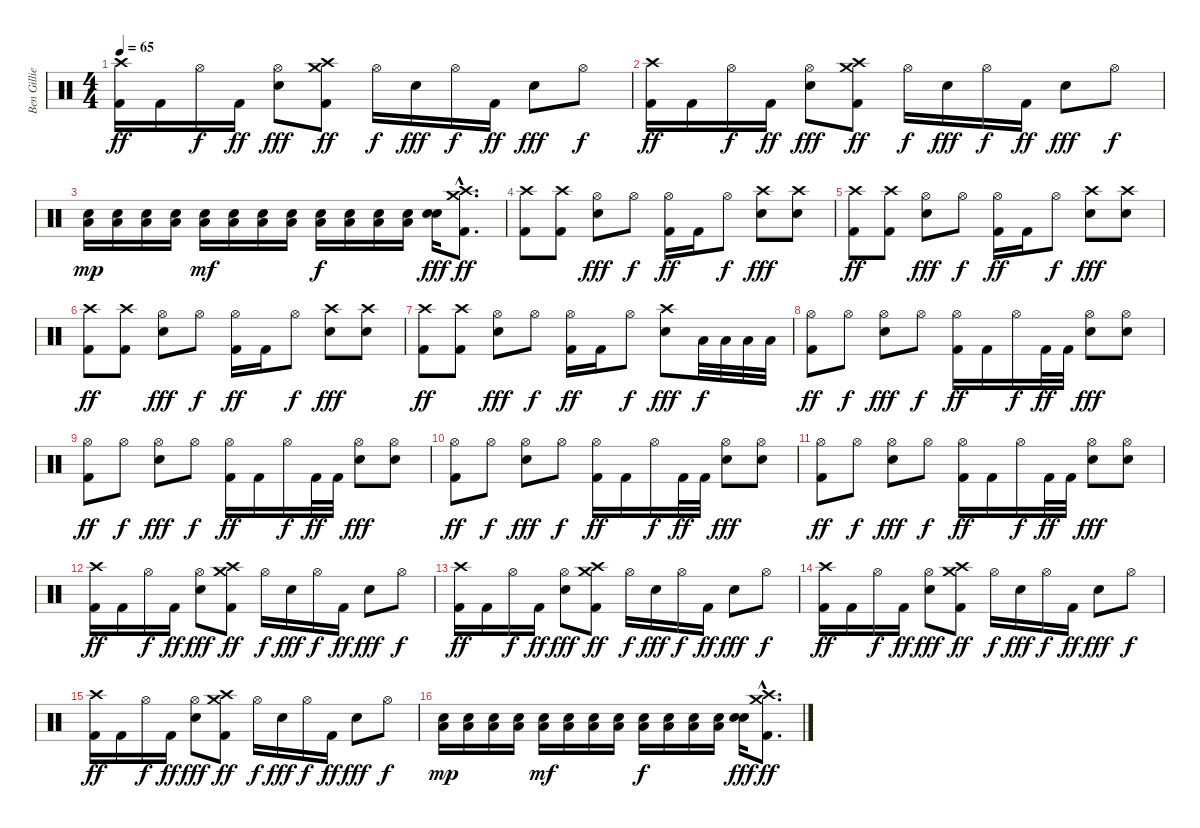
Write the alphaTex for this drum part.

\track ("Ben Gillies" "Ben Gillie") {instrument percussion}
\staff {score}
\articulation defaults
\ts (4 4)
\tempo 65
\clef neutral
\ks c
("Crash high (hit)" "Kick (hit) 2").16{dy ff} "Kick (hit) 2".16 "Hi-Hat (open)".16{dy f} "Kick (hit) 2".16{dy ff} ("Hi-Hat (open)" "Electric Snare (hit)").8{dy fff} ("Crash high (hit)" "Crash medium (hit)" "Kick (hit) 2").8{dy ff} "Hi-Hat (open)".16{dy f} "Electric Snare (hit)".16{dy fff} "Hi-Hat (open)".16{dy f} "Kick (hit) 2".16{dy ff} "Electric Snare (hit)".8{dy fff} "Hi-Hat (open)".8{dy f} |
("Crash high (hit)" "Kick (hit) 2").16{dy ff} "Kick (hit) 2".16 "Hi-Hat (open)".16{dy f} "Kick (hit) 2".16{dy ff} ("Hi-Hat (open)" "Electric Snare (hit)").8{dy fff} ("Crash high (hit)" "Crash medium (hit)" "Kick (hit) 2").8{dy ff} "Hi-Hat (open)".16{dy f} "Electric Snare (hit)".16{dy fff} "Hi-Hat (open)".16{dy f} "Kick (hit) 2".16{dy ff} "Electric Snare (hit)".8{dy fff} "Hi-Hat (open)".8{dy f} |
("Low Floor Tom (hit)" "Electric Snare (hit)").16{dy mp} ("Low Floor Tom (hit)" "Electric Snare (hit)").16 ("Low Floor Tom (hit)" "Electric Snare (hit)").16 ("Low Floor Tom (hit)" "Electric Snare (hit)").16 ("Low Floor Tom (hit)" "Electric Snare (hit)").16{dy mf} ("Low Floor Tom (hit)" "Electric Snare (hit)").16 ("Low Floor Tom (hit)" "Electric Snare (hit)").16 ("Low Floor Tom (hit)" "Electric Snare (hit)").16 ("Low Floor Tom (hit)" "Electric Snare (hit)").16{dy f} ("Low Floor Tom (hit)" "Electric Snare (hit)").16 ("Low Floor Tom (hit)" "Electric Snare (hit)").16 ("Low Floor Tom (hit)" "Electric Snare (hit)").16 ("Electric Snare (hit)" "Electric Snare (hit)").16{dy fff} ("Crash high (hit)"{hac} "Crash medium (hit)"{hac} "Kick (hit) 2"{hac}).8{d dy ff} |
("Crash high (hit)" "Kick (hit) 2").8 ("Crash high (hit)" "Kick (hit) 2").8 ("Hi-Hat (open)" "Electric Snare (hit)").8{dy fff} "Hi-Hat (open)".8{dy f} ("Hi-Hat (open)" "Kick (hit) 2").16{dy ff} "Kick (hit) 2".16 "Hi-Hat (open)".8{dy f} ("Crash high (hit)" "Electric Snare (hit)").8{dy fff} ("Crash high (hit)" "Electric Snare (hit)").8 |
("Crash high (hit)" "Kick (hit) 2").8{dy ff} ("Crash high (hit)" "Kick (hit) 2").8 ("Hi-Hat (open)" "Electric Snare (hit)").8{dy fff} "Hi-Hat (open)".8{dy f} ("Hi-Hat (open)" "Kick (hit) 2").16{dy ff} "Kick (hit) 2".16 "Hi-Hat (open)".8{dy f} ("Crash high (hit)" "Electric Snare (hit)").8{dy fff} ("Crash high (hit)" "Electric Snare (hit)").8 |
("Crash high (hit)" "Kick (hit) 2").8{dy ff} ("Crash high (hit)" "Kick (hit) 2").8 ("Hi-Hat (open)" "Electric Snare (hit)").8{dy fff} "Hi-Hat (open)".8{dy f} ("Hi-Hat (open)" "Kick (hit) 2").16{dy ff} "Kick (hit) 2".16 "Hi-Hat (open)".8{dy f} ("Crash high (hit)" "Electric Snare (hit)").8{dy fff} ("Crash high (hit)" "Electric Snare (hit)").8 |
("Crash high (hit)" "Kick (hit) 2").8{dy ff} ("Crash high (hit)" "Kick (hit) 2").8 ("Hi-Hat (open)" "Electric Snare (hit)").8{dy fff} "Hi-Hat (open)".8{dy f} ("Hi-Hat (open)" "Kick (hit) 2").16{dy ff} "Kick (hit) 2".16 "Hi-Hat (open)".8{dy f} ("Crash high (hit)" "Electric Snare (hit)").8{dy fff} "Low Tom (hit)".32{dy f} "Low Tom (hit)".32 "Low Floor Tom (hit)".32 "Low Floor Tom (hit)".32 |
("Hi-Hat (open)" "Kick (hit) 2").8{dy ff} "Hi-Hat (open)".8{dy f} ("Hi-Hat (open)" "Electric Snare (hit)").8{dy fff} "Hi-Hat (open)".8{dy f} ("Hi-Hat (open)" "Kick (hit) 2").16{dy ff} "Kick (hit) 2".16 "Hi-Hat (open)".16{dy f} "Kick (hit) 2".32{dy ff} "Kick (hit) 2".32 ("Hi-Hat (open)" "Electric Snare (hit)").8{dy fff} ("Hi-Hat (open)" "Electric Snare (hit)").8 |
("Hi-Hat (open)" "Kick (hit) 2").8{dy ff} "Hi-Hat (open)".8{dy f} ("Hi-Hat (open)" "Electric Snare (hit)").8{dy fff} "Hi-Hat (open)".8{dy f} ("Hi-Hat (open)" "Kick (hit) 2").16{dy ff} "Kick (hit) 2".16 "Hi-Hat (open)".16{dy f} "Kick (hit) 2".32{dy ff} "Kick (hit) 2".32 ("Hi-Hat (open)" "Electric Snare (hit)").8{dy fff} ("Hi-Hat (open)" "Electric Snare (hit)").8 |
("Hi-Hat (open)" "Kick (hit) 2").8{dy ff} "Hi-Hat (open)".8{dy f} ("Hi-Hat (open)" "Electric Snare (hit)").8{dy fff} "Hi-Hat (open)".8{dy f} ("Hi-Hat (open)" "Kick (hit) 2").16{dy ff} "Kick (hit) 2".16 "Hi-Hat (open)".16{dy f} "Kick (hit) 2".32{dy ff} "Kick (hit) 2".32 ("Hi-Hat (open)" "Electric Snare (hit)").8{dy fff} ("Hi-Hat (open)" "Electric Snare (hit)").8 |
("Hi-Hat (open)" "Kick (hit) 2").8{dy ff} "Hi-Hat (open)".8{dy f} ("Hi-Hat (open)" "Electric Snare (hit)").8{dy fff} "Hi-Hat (open)".8{dy f} ("Hi-Hat (open)" "Kick (hit) 2").16{dy ff} "Kick (hit) 2".16 "Hi-Hat (open)".16{dy f} "Kick (hit) 2".32{dy ff} "Kick (hit) 2".32 ("Hi-Hat (open)" "Electric Snare (hit)").8{dy fff} ("Hi-Hat (open)" "Electric Snare (hit)").8 |
("Crash high (hit)" "Kick (hit) 2").16{dy ff} "Kick (hit) 2".16 "Hi-Hat (open)".16{dy f} "Kick (hit) 2".16{dy ff} ("Hi-Hat (open)" "Electric Snare (hit)").8{dy fff} ("Crash high (hit)" "Crash medium (hit)" "Kick (hit) 2").8{dy ff} "Hi-Hat (open)".16{dy f} "Electric Snare (hit)".16{dy fff} "Hi-Hat (open)".16{dy f} "Kick (hit) 2".16{dy ff} "Electric Snare (hit)".8{dy fff} "Hi-Hat (open)".8{dy f} |
("Crash high (hit)" "Kick (hit) 2").16{dy ff} "Kick (hit) 2".16 "Hi-Hat (open)".16{dy f} "Kick (hit) 2".16{dy ff} ("Hi-Hat (open)" "Electric Snare (hit)").8{dy fff} ("Crash high (hit)" "Crash medium (hit)" "Kick (hit) 2").8{dy ff} "Hi-Hat (open)".16{dy f} "Electric Snare (hit)".16{dy fff} "Hi-Hat (open)".16{dy f} "Kick (hit) 2".16{dy ff} "Electric Snare (hit)".8{dy fff} "Hi-Hat (open)".8{dy f} |
("Crash high (hit)" "Kick (hit) 2").16{dy ff} "Kick (hit) 2".16 "Hi-Hat (open)".16{dy f} "Kick (hit) 2".16{dy ff} ("Hi-Hat (open)" "Electric Snare (hit)").8{dy fff} ("Crash high (hit)" "Crash medium (hit)" "Kick (hit) 2").8{dy ff} "Hi-Hat (open)".16{dy f} "Electric Snare (hit)".16{dy fff} "Hi-Hat (open)".16{dy f} "Kick (hit) 2".16{dy ff} "Electric Snare (hit)".8{dy fff} "Hi-Hat (open)".8{dy f} |
("Crash high (hit)" "Kick (hit) 2").16{dy ff} "Kick (hit) 2".16 "Hi-Hat (open)".16{dy f} "Kick (hit) 2".16{dy ff} ("Hi-Hat (open)" "Electric Snare (hit)").8{dy fff} ("Crash high (hit)" "Crash medium (hit)" "Kick (hit) 2").8{dy ff} "Hi-Hat (open)".16{dy f} "Electric Snare (hit)".16{dy fff} "Hi-Hat (open)".16{dy f} "Kick (hit) 2".16{dy ff} "Electric Snare (hit)".8{dy fff} "Hi-Hat (open)".8{dy f} |
("Low Floor Tom (hit)" "Electric Snare (hit)").16{dy mp} ("Low Floor Tom (hit)" "Electric Snare (hit)").16 ("Low Floor Tom (hit)" "Electric Snare (hit)").16 ("Low Floor Tom (hit)" "Electric Snare (hit)").16 ("Low Floor Tom (hit)" "Electric Snare (hit)").16{dy mf} ("Low Floor Tom (hit)" "Electric Snare (hit)").16 ("Low Floor Tom (hit)" "Electric Snare (hit)").16 ("Low Floor Tom (hit)" "Electric Snare (hit)").16 ("Low Floor Tom (hit)" "Electric Snare (hit)").16{dy f} ("Low Floor Tom (hit)" "Electric Snare (hit)").16 ("Low Floor Tom (hit)" "Electric Snare (hit)").16 ("Low Floor Tom (hit)" "Electric Snare (hit)").16 ("Electric Snare (hit)" "Electric Snare (hit)").16{dy fff} ("Crash high (hit)"{hac} "Crash medium (hit)"{hac} "Kick (hit) 2"{hac}).8{d dy ff}
